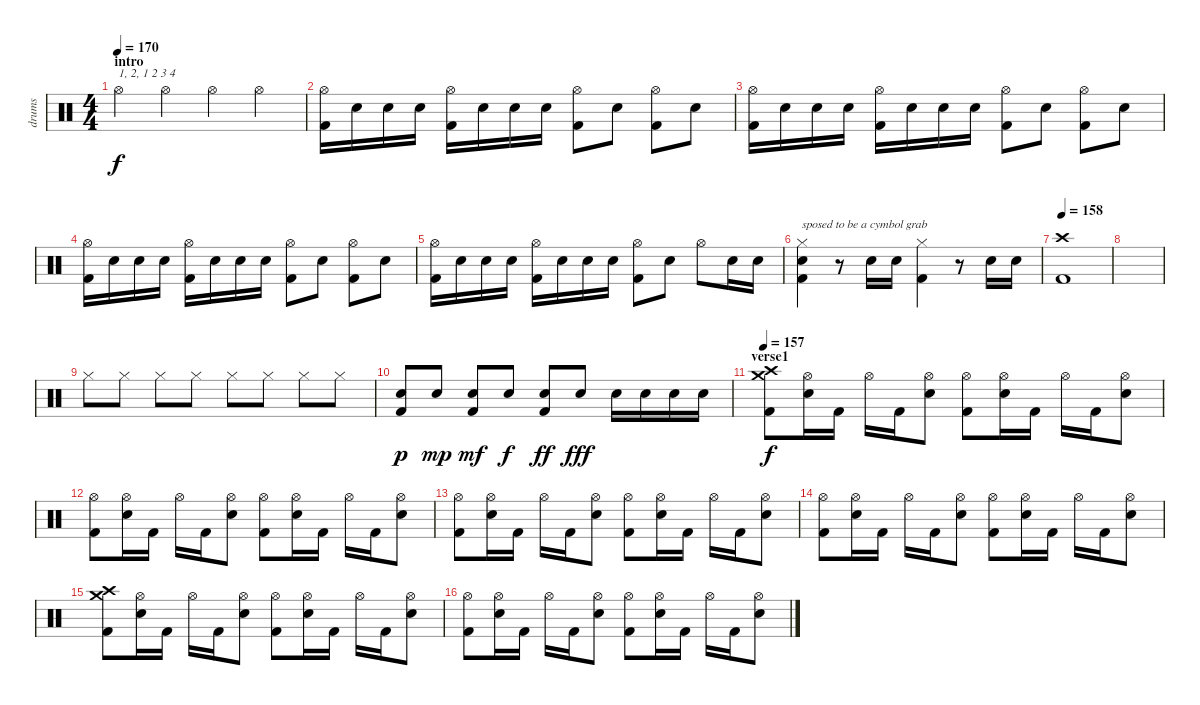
\track ("drums" "drums") {instrument percussion}
\staff {score}
\articulation defaults
\ts (4 4)
\section ("" "intro")
\tempo 170
\clef neutral
\ks c "Hi-Hat (open)".4{txt "1, 2, 1 2 3 4" dy f} "Hi-Hat (open)".4 "Hi-Hat (open)".4 "Hi-Hat (open)".4
|
("Hi-Hat (open)" "Kick (hit) 2").16 "Electric Snare (hit)".16 "Electric Snare (hit)".16 "Electric Snare (hit)".16 ("Hi-Hat (open)" "Kick (hit) 2").16 "Electric Snare (hit)".16 "Electric Snare (hit)".16 "Electric Snare (hit)".16 ("Hi-Hat (open)" "Kick (hit) 2").8 "Electric Snare (hit)".8 ("Hi-Hat (open)" "Kick (hit) 2").8 "Electric Snare (hit)".8 |
("Hi-Hat (open)" "Kick (hit) 2").16 "Electric Snare (hit)".16 "Electric Snare (hit)".16 "Electric Snare (hit)".16 ("Hi-Hat (open)" "Kick (hit) 2").16 "Electric Snare (hit)".16 "Electric Snare (hit)".16 "Electric Snare (hit)".16 ("Hi-Hat (open)" "Kick (hit) 2").8 "Electric Snare (hit)".8 ("Hi-Hat (open)" "Kick (hit) 2").8 "Electric Snare (hit)".8 |
("Hi-Hat (open)" "Kick (hit) 2").16 "Electric Snare (hit)".16 "Electric Snare (hit)".16 "Electric Snare (hit)".16 ("Hi-Hat (open)" "Kick (hit) 2").16 "Electric Snare (hit)".16 "Electric Snare (hit)".16 "Electric Snare (hit)".16 ("Hi-Hat (open)" "Kick (hit) 2").8 "Electric Snare (hit)".8 ("Hi-Hat (open)" "Kick (hit) 2").8 "Electric Snare (hit)".8 |
("Hi-Hat (open)" "Kick (hit) 2").16 "Electric Snare (hit)".16 "Electric Snare (hit)".16 "Electric Snare (hit)".16 ("Hi-Hat (open)" "Kick (hit) 2").16 "Electric Snare (hit)".16 "Electric Snare (hit)".16 "Electric Snare (hit)".16 ("Hi-Hat (open)" "Kick (hit) 2").8 "Electric Snare (hit)".8 "Hi-Hat (open)".8 "Electric Snare (hit)".16 "Electric Snare (hit)".16 |
("Snare (hit)"{x} "Hi-Hat (closed)" "Kick (hit) 2").4{txt "sposed to be a cymbol grab"} r.8 "Electric Snare (hit)".16 "Electric Snare (hit)".16 ("Hi-Hat (closed)" "Kick (hit) 2").4 r.8 "Electric Snare (hit)".16 "Electric Snare (hit)".16 |
\tempo 158
("Crash high (hit)" "Kick (hit) 2").1 |
|
"Hi-Hat (closed)".8 "Hi-Hat (closed)".8 "Hi-Hat (closed)".8 "Hi-Hat (closed)".8 "Hi-Hat (closed)".8 "Hi-Hat (closed)".8 "Hi-Hat (closed)".8 "Hi-Hat (closed)".8 |
("Electric Snare (hit)" "Kick (hit) 2").8{dy p} "Electric Snare (hit)".8{dy mp} ("Electric Snare (hit)" "Kick (hit) 2").8{dy mf} "Electric Snare (hit)".8{dy f} ("Electric Snare (hit)" "Kick (hit) 2").8{dy ff} "Electric Snare (hit)".8{dy fff} "Electric Snare (hit)".16 "Electric Snare (hit)".16 "Electric Snare (hit)".16 "Electric Snare (hit)".16 |
\section ("" "verse1")
\tempo 157
("Crash high (hit)" "Crash medium (hit)" "Kick (hit) 2").8{dy f} ("Hi-Hat (open)" "Electric Snare (hit)").16 "Kick (hit) 2".16 "Hi-Hat (open)".16 "Kick (hit) 2".16 ("Hi-Hat (open)" "Electric Snare (hit)").8 ("Hi-Hat (open)" "Kick (hit) 2").8 ("Hi-Hat (open)" "Electric Snare (hit)").16 "Kick (hit) 2".16 "Hi-Hat (open)".16 "Kick (hit) 2".16 ("Hi-Hat (open)" "Electric Snare (hit)").8 |
("Hi-Hat (open)" "Kick (hit) 2").8 ("Hi-Hat (open)" "Electric Snare (hit)").16 "Kick (hit) 2".16 "Hi-Hat (open)".16 "Kick (hit) 2".16 ("Hi-Hat (open)" "Electric Snare (hit)").8 ("Hi-Hat (open)" "Kick (hit) 2").8 ("Hi-Hat (open)" "Electric Snare (hit)").16 "Kick (hit) 2".16 "Hi-Hat (open)".16 "Kick (hit) 2".16 ("Hi-Hat (open)" "Electric Snare (hit)").8 |
("Hi-Hat (open)" "Kick (hit) 2").8 ("Hi-Hat (open)" "Electric Snare (hit)").16 "Kick (hit) 2".16 "Hi-Hat (open)".16 "Kick (hit) 2".16 ("Hi-Hat (open)" "Electric Snare (hit)").8 ("Hi-Hat (open)" "Kick (hit) 2").8 ("Hi-Hat (open)" "Electric Snare (hit)").16 "Kick (hit) 2".16 "Hi-Hat (open)".16 "Kick (hit) 2".16 ("Hi-Hat (open)" "Electric Snare (hit)").8 |
("Hi-Hat (open)" "Kick (hit) 2").8 ("Hi-Hat (open)" "Electric Snare (hit)").16 "Kick (hit) 2".16 "Hi-Hat (open)".16 "Kick (hit) 2".16 ("Hi-Hat (open)" "Electric Snare (hit)").8 ("Hi-Hat (open)" "Kick (hit) 2").8 ("Hi-Hat (open)" "Electric Snare (hit)").16 "Kick (hit) 2".16 "Hi-Hat (open)".16 "Kick (hit) 2".16 ("Hi-Hat (open)" "Electric Snare (hit)").8 |
("Crash high (hit)" "Crash medium (hit)" "Kick (hit) 2").8 ("Hi-Hat (open)" "Electric Snare (hit)").16 "Kick (hit) 2".16 "Hi-Hat (open)".16 "Kick (hit) 2".16 ("Hi-Hat (open)" "Electric Snare (hit)").8 ("Hi-Hat (open)" "Kick (hit) 2").8 ("Hi-Hat (open)" "Electric Snare (hit)").16 "Kick (hit) 2".16 "Hi-Hat (open)".16 "Kick (hit) 2".16 ("Hi-Hat (open)" "Electric Snare (hit)").8 |
("Hi-Hat (open)" "Kick (hit) 2").8 ("Hi-Hat (open)" "Electric Snare (hit)").16 "Kick (hit) 2".16 "Hi-Hat (open)".16 "Kick (hit) 2".16 ("Hi-Hat (open)" "Electric Snare (hit)").8 ("Hi-Hat (open)" "Kick (hit) 2").8 ("Hi-Hat (open)" "Electric Snare (hit)").16 "Kick (hit) 2".16 "Hi-Hat (open)".16 "Kick (hit) 2".16 ("Hi-Hat (open)" "Electric Snare (hit)").8
